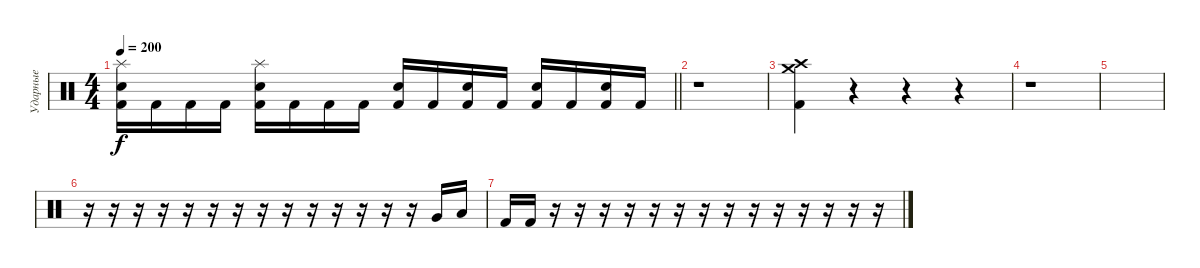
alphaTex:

\track ("Ударные" "Ударные") {instrument percussion}
\staff {score}
\articulation defaults
\ts (4 4)
\tempo 200
\clef neutral
\barLineRight lightlight
\ks c
("Kick (hit) 2" "Electric Snare (hit)" "Splash (hit)").16{dy f} "Kick (hit) 2".16 "Kick (hit) 2".16 "Kick (hit) 2".16 ("Kick (hit) 2" "Electric Snare (hit)" "Splash (hit)").16 "Kick (hit) 2".16 "Kick (hit) 2".16 "Kick (hit) 2".16 ("Kick (hit) 2" "Electric Snare (hit)").16 "Kick (hit) 2".16 ("Kick (hit) 2" "Electric Snare (hit)").16 "Kick (hit) 2".16 ("Kick (hit) 2" "Electric Snare (hit)").16 "Kick (hit) 2".16 ("Kick (hit) 2" "Electric Snare (hit)").16 "Kick (hit) 2".16 |
r.1 |
("Kick (hit) 2" "Crash high (hit)" "Crash medium (hit)").4 r.4 r.4 r.4 |
r.1 |
|
r.16 r.16 r.16 r.16 r.16 r.16 r.16 r.16 r.16 r.16 r.16 r.16 r.16 r.16 "Very Low Tom (hit)".16 "Low Floor Tom (hit)".16 |
"Kick (hit) 2".16 "Kick (hit) 2".16 r.16 r.16 r.16 r.16 r.16 r.16 r.16 r.16 r.16 r.16 r.16 r.16 r.16 r.16
